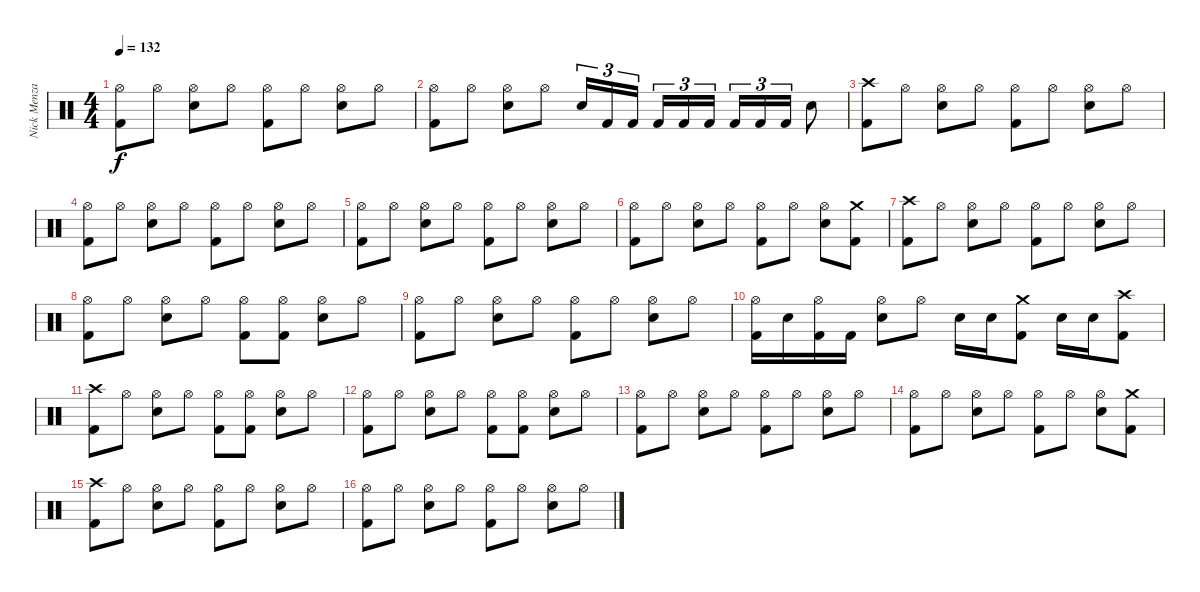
\track ("Nick Menza (Drums)" "Nick Menza") {instrument percussion}
\staff {score}
\articulation defaults
\ts (4 4)
\tempo 132
\clef neutral
\ks c
("Hi-Hat (open)" "Kick (hit) 2").8{dy f} "Hi-Hat (open)".8 ("Hi-Hat (open)" "Snare (hit) 2").8 "Hi-Hat (open)".8 ("Hi-Hat (open)" "Kick (hit) 2").8 "Hi-Hat (open)".8 ("Hi-Hat (open)" "Snare (hit) 2").8 "Hi-Hat (open)".8 |
("Hi-Hat (open)" "Kick (hit) 2").8 "Hi-Hat (open)".8 ("Hi-Hat (open)" "Snare (hit) 2").8 "Hi-Hat (open)".8 "Snare (hit) 2".16{tu (3 2)} "Kick (hit) 2".16{tu (3 2)} "Kick (hit) 2".16{tu (3 2) beam splitsecondary} "Kick (hit) 2".16{tu (3 2)} "Kick (hit) 2".16{tu (3 2)} "Kick (hit) 2".16{tu (3 2)} "Kick (hit) 2".16{tu (3 2)} "Kick (hit) 2".16{tu (3 2)} "Kick (hit) 2".16{tu (3 2)} "Snare (hit) 2".8 |
("Crash high (hit)" "Kick (hit) 2").8 "Hi-Hat (open)".8 ("Hi-Hat (open)" "Snare (hit) 2").8 "Hi-Hat (open)".8 ("Hi-Hat (open)" "Kick (hit) 2").8 "Hi-Hat (open)".8 ("Hi-Hat (open)" "Snare (hit) 2").8 "Hi-Hat (open)".8 |
("Hi-Hat (open)" "Kick (hit) 2").8 "Hi-Hat (open)".8 ("Hi-Hat (open)" "Snare (hit) 2").8 "Hi-Hat (open)".8 ("Hi-Hat (open)" "Kick (hit) 2").8 "Hi-Hat (open)".8 ("Hi-Hat (open)" "Snare (hit) 2").8 "Hi-Hat (open)".8 |
("Hi-Hat (open)" "Kick (hit) 2").8 "Hi-Hat (open)".8 ("Hi-Hat (open)" "Snare (hit) 2").8 "Hi-Hat (open)".8 ("Hi-Hat (open)" "Kick (hit) 2").8 "Hi-Hat (open)".8 ("Hi-Hat (open)" "Snare (hit) 2").8 "Hi-Hat (open)".8 |
("Hi-Hat (open)" "Kick (hit) 2").8 "Hi-Hat (open)".8 ("Hi-Hat (open)" "Snare (hit) 2").8 "Hi-Hat (open)".8 ("Hi-Hat (open)" "Kick (hit) 2").8 "Hi-Hat (open)".8 ("Hi-Hat (open)" "Snare (hit) 2").8 ("Crash medium (hit)" "Kick (hit) 2").8 |
("Crash high (hit)" "Kick (hit) 2").8 "Hi-Hat (open)".8 ("Hi-Hat (open)" "Snare (hit) 2").8 "Hi-Hat (open)".8 ("Hi-Hat (open)" "Kick (hit) 2").8 "Hi-Hat (open)".8 ("Hi-Hat (open)" "Snare (hit) 2").8 "Hi-Hat (open)".8 |
("Hi-Hat (open)" "Kick (hit) 2").8 "Hi-Hat (open)".8 ("Hi-Hat (open)" "Snare (hit) 2").8 "Hi-Hat (open)".8 ("Hi-Hat (open)" "Kick (hit) 2").8 ("Hi-Hat (open)" "Kick (hit) 2").8 ("Hi-Hat (open)" "Snare (hit) 2").8 "Hi-Hat (open)".8 |
("Hi-Hat (open)" "Kick (hit) 2").8 "Hi-Hat (open)".8 ("Hi-Hat (open)" "Snare (hit) 2").8 "Hi-Hat (open)".8 ("Hi-Hat (open)" "Kick (hit) 2").8 "Hi-Hat (open)".8 ("Hi-Hat (open)" "Snare (hit) 2").8 "Hi-Hat (open)".8 |
("Hi-Hat (open)" "Kick (hit) 2").16 "Snare (hit) 2".16 ("Hi-Hat (open)" "Kick (hit) 2").16 "Kick (hit) 2".16 ("Hi-Hat (open)" "Snare (hit) 2").8 "Hi-Hat (open)".8 "Snare (hit) 2".16 "Snare (hit) 2".16 ("Crash medium (hit)" "Kick (hit) 2").8 "Snare (hit) 2".16 "Snare (hit) 2".16 ("Crash high (hit)" "Kick (hit) 2").8 |
("Crash high (hit)" "Kick (hit) 2").8 "Hi-Hat (open)".8 ("Hi-Hat (open)" "Snare (hit) 2").8 "Hi-Hat (open)".8 ("Hi-Hat (open)" "Kick (hit) 2").8 ("Hi-Hat (open)" "Kick (hit) 2").8 ("Hi-Hat (open)" "Snare (hit) 2").8 "Hi-Hat (open)".8 |
("Hi-Hat (open)" "Kick (hit) 2").8 "Hi-Hat (open)".8 ("Hi-Hat (open)" "Snare (hit) 2").8 "Hi-Hat (open)".8 ("Hi-Hat (open)" "Kick (hit) 2").8 ("Hi-Hat (open)" "Kick (hit) 2").8 ("Hi-Hat (open)" "Snare (hit) 2").8 "Hi-Hat (open)".8 |
("Hi-Hat (open)" "Kick (hit) 2").8 "Hi-Hat (open)".8 ("Hi-Hat (open)" "Snare (hit) 2").8 "Hi-Hat (open)".8 ("Hi-Hat (open)" "Kick (hit) 2").8 "Hi-Hat (open)".8 ("Hi-Hat (open)" "Snare (hit) 2").8 "Hi-Hat (open)".8 |
("Hi-Hat (open)" "Kick (hit) 2").8 "Hi-Hat (open)".8 ("Hi-Hat (open)" "Snare (hit) 2").8 "Hi-Hat (open)".8 ("Hi-Hat (open)" "Kick (hit) 2").8 "Hi-Hat (open)".8 ("Hi-Hat (open)" "Snare (hit) 2").8 ("Crash medium (hit)" "Kick (hit) 2").8 |
("Crash high (hit)" "Kick (hit) 2").8 "Hi-Hat (open)".8 ("Hi-Hat (open)" "Snare (hit) 2").8 "Hi-Hat (open)".8 ("Hi-Hat (open)" "Kick (hit) 2").8 "Hi-Hat (open)".8 ("Hi-Hat (open)" "Snare (hit) 2").8 "Hi-Hat (open)".8 |
("Hi-Hat (open)" "Kick (hit) 2").8 "Hi-Hat (open)".8 ("Hi-Hat (open)" "Snare (hit) 2").8 "Hi-Hat (open)".8 ("Hi-Hat (open)" "Kick (hit) 2").8 "Hi-Hat (open)".8 ("Hi-Hat (open)" "Snare (hit) 2").8 "Hi-Hat (open)".8
